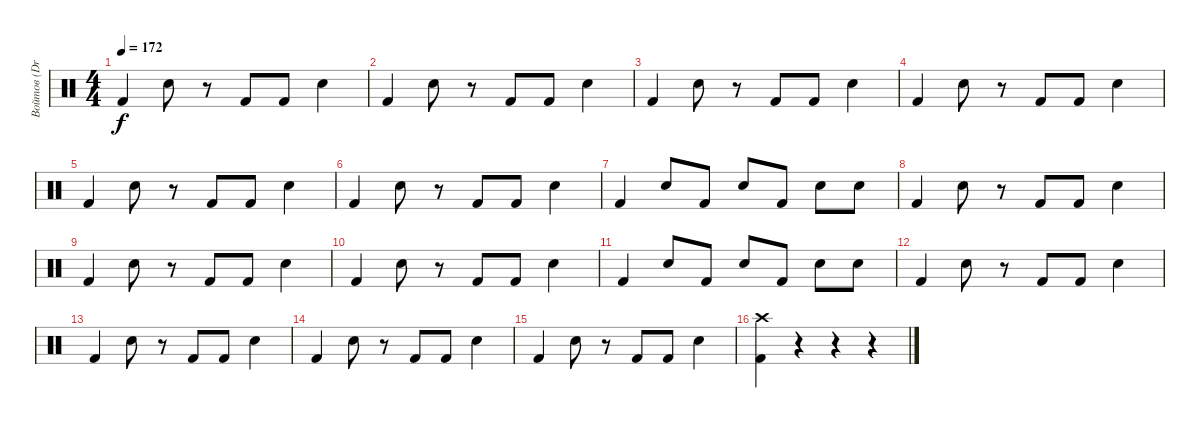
\track ("Войтов (Drums)" "Войтов (Dr") {instrument percussion}
\staff {score}
\articulation defaults
\ts (4 4)
\tempo 172
\clef neutral
\ks c "Kick (hit) 2".4{dy f} "Electric Snare (hit)".8
r.8 "Kick (hit) 2".8 "Kick (hit) 2".8 "Electric Snare (hit)".4 |
"Kick (hit) 2".4 "Electric Snare (hit)".8 r.8 "Kick (hit) 2".8 "Kick (hit) 2".8 "Electric Snare (hit)".4 |
"Kick (hit) 2".4 "Electric Snare (hit)".8 r.8 "Kick (hit) 2".8 "Kick (hit) 2".8 "Electric Snare (hit)".4 |
"Kick (hit) 2".4 "Electric Snare (hit)".8 r.8 "Kick (hit) 2".8 "Kick (hit) 2".8 "Electric Snare (hit)".4 |
"Kick (hit) 2".4 "Electric Snare (hit)".8 r.8 "Kick (hit) 2".8 "Kick (hit) 2".8 "Electric Snare (hit)".4 |
"Kick (hit) 2".4 "Electric Snare (hit)".8 r.8 "Kick (hit) 2".8 "Kick (hit) 2".8 "Electric Snare (hit)".4 |
"Kick (hit) 2".4 "Electric Snare (hit)".8 "Kick (hit) 2".8 "Electric Snare (hit)".8 "Kick (hit) 2".8 "Electric Snare (hit)".8 "Electric Snare (hit)".8 |
"Kick (hit) 2".4 "Electric Snare (hit)".8 r.8 "Kick (hit) 2".8 "Kick (hit) 2".8 "Electric Snare (hit)".4 |
"Kick (hit) 2".4 "Electric Snare (hit)".8 r.8 "Kick (hit) 2".8 "Kick (hit) 2".8 "Electric Snare (hit)".4 |
"Kick (hit) 2".4 "Electric Snare (hit)".8 r.8 "Kick (hit) 2".8 "Kick (hit) 2".8 "Electric Snare (hit)".4 |
"Kick (hit) 2".4 "Electric Snare (hit)".8 "Kick (hit) 2".8 "Electric Snare (hit)".8 "Kick (hit) 2".8 "Electric Snare (hit)".8 "Electric Snare (hit)".8 |
"Kick (hit) 2".4 "Electric Snare (hit)".8 r.8 "Kick (hit) 2".8 "Kick (hit) 2".8 "Electric Snare (hit)".4 |
"Kick (hit) 2".4 "Electric Snare (hit)".8 r.8 "Kick (hit) 2".8 "Kick (hit) 2".8 "Electric Snare (hit)".4 |
"Kick (hit) 2".4 "Electric Snare (hit)".8 r.8 "Kick (hit) 2".8 "Kick (hit) 2".8 "Electric Snare (hit)".4 |
"Kick (hit) 2".4 "Electric Snare (hit)".8 r.8 "Kick (hit) 2".8 "Kick (hit) 2".8 "Electric Snare (hit)".4 |
("Crash high (hit)" "Kick (hit) 2").4 r.4 r.4 r.4
